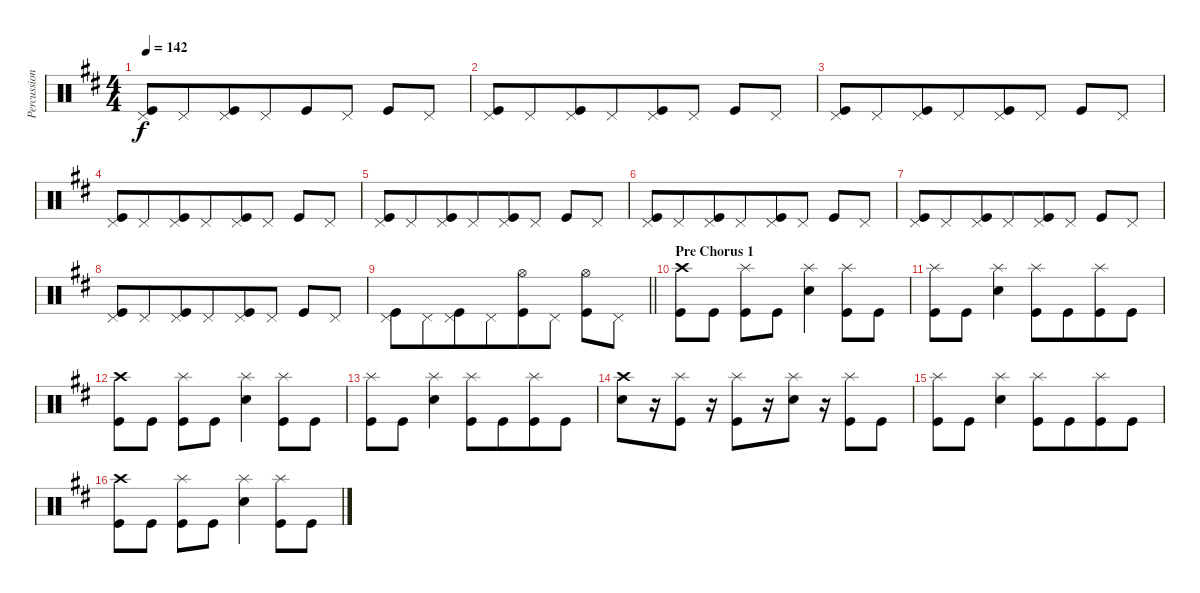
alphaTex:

\track ("Percussion" "Percussion") {instrument percussion}
\staff {score}
\articulation defaults
\ts (4 4)
\tempo 142
\clef neutral
\ks d
("Kick (hit)" "Pedal Hi-Hat (hit)").8{dy f beam merge} "Pedal Hi-Hat (hit)".8{beam merge} ("Kick (hit)" "Pedal Hi-Hat (hit)").8 "Pedal Hi-Hat (hit)".8{beam merge} "Kick (hit)".8{beam merge} "Pedal Hi-Hat (hit)".8 "Kick (hit)".8{beam merge} "Pedal Hi-Hat (hit)".8 |
("Kick (hit)" "Pedal Hi-Hat (hit)").8{beam merge} "Pedal Hi-Hat (hit)".8{beam merge} ("Kick (hit)" "Pedal Hi-Hat (hit)").8 "Pedal Hi-Hat (hit)".8{beam merge} ("Kick (hit)" "Pedal Hi-Hat (hit)").8{beam merge} "Pedal Hi-Hat (hit)".8 "Kick (hit)".8{beam merge} "Pedal Hi-Hat (hit)".8 |
("Kick (hit)" "Pedal Hi-Hat (hit)").8{beam merge} "Pedal Hi-Hat (hit)".8{beam merge} ("Kick (hit)" "Pedal Hi-Hat (hit)").8 "Pedal Hi-Hat (hit)".8{beam merge} ("Kick (hit)" "Pedal Hi-Hat (hit)").8{beam merge} "Pedal Hi-Hat (hit)".8 "Kick (hit)".8{beam merge} "Pedal Hi-Hat (hit)".8 |
("Kick (hit)" "Pedal Hi-Hat (hit)").8{beam merge} "Pedal Hi-Hat (hit)".8{beam merge} ("Kick (hit)" "Pedal Hi-Hat (hit)").8 "Pedal Hi-Hat (hit)".8{beam merge} ("Kick (hit)" "Pedal Hi-Hat (hit)").8{beam merge} "Pedal Hi-Hat (hit)".8 "Kick (hit)".8{beam merge} "Pedal Hi-Hat (hit)".8 |
("Kick (hit)" "Pedal Hi-Hat (hit)").8{beam merge} "Pedal Hi-Hat (hit)".8{beam merge} ("Kick (hit)" "Pedal Hi-Hat (hit)").8 "Pedal Hi-Hat (hit)".8{beam merge} ("Kick (hit)" "Pedal Hi-Hat (hit)").8{beam merge} "Pedal Hi-Hat (hit)".8 "Kick (hit)".8{beam merge} "Pedal Hi-Hat (hit)".8 |
("Kick (hit)" "Pedal Hi-Hat (hit)").8{beam merge} "Pedal Hi-Hat (hit)".8{beam merge} ("Kick (hit)" "Pedal Hi-Hat (hit)").8 "Pedal Hi-Hat (hit)".8{beam merge} ("Kick (hit)" "Pedal Hi-Hat (hit)").8{beam merge} "Pedal Hi-Hat (hit)".8 "Kick (hit)".8{beam merge} "Pedal Hi-Hat (hit)".8 |
("Kick (hit)" "Pedal Hi-Hat (hit)").8{beam merge} "Pedal Hi-Hat (hit)".8{beam merge} ("Kick (hit)" "Pedal Hi-Hat (hit)").8 "Pedal Hi-Hat (hit)".8{beam merge} ("Kick (hit)" "Pedal Hi-Hat (hit)").8{beam merge} "Pedal Hi-Hat (hit)".8 "Kick (hit)".8{beam merge} "Pedal Hi-Hat (hit)".8 |
("Kick (hit)" "Pedal Hi-Hat (hit)").8{beam merge} "Pedal Hi-Hat (hit)".8{beam merge} ("Kick (hit)" "Pedal Hi-Hat (hit)").8 "Pedal Hi-Hat (hit)".8{beam merge} ("Kick (hit)" "Pedal Hi-Hat (hit)").8{beam merge} "Pedal Hi-Hat (hit)".8 "Kick (hit)".8{beam merge} "Pedal Hi-Hat (hit)".8 |
\barLineRight lightlight
("Kick (hit)" "Pedal Hi-Hat (hit)").8{beam merge} "Pedal Hi-Hat (hit)".8{beam merge} ("Kick (hit)" "Pedal Hi-Hat (hit)").8 "Pedal Hi-Hat (hit)".8{beam merge} ("Kick (hit)" "Hi-Hat (open)").8{beam merge} "Pedal Hi-Hat (hit)".8 ("Kick (hit)" "Hi-Hat (open)").8{beam merge} "Pedal Hi-Hat (hit)".8 |
\section ("" "Pre Chorus 1")
("Kick (hit)" "Crash high (hit)").8 "Kick (hit)".8 ("Kick (hit)" "Splash (hit)").8 "Kick (hit)".8{beam merge} ("Snare (hit) 2" "Splash (hit)").4 ("Kick (hit)" "Splash (hit)").8 "Kick (hit)".8 |
("Kick (hit)" "Splash (hit)").8 "Kick (hit)".8 ("Snare (hit) 2" "Splash (hit)").4 ("Kick (hit)" "Splash (hit)").8 "Kick (hit)".8{beam merge} ("Kick (hit)" "Splash (hit)").8 "Kick (hit)".8 |
("Kick (hit)" "Crash high (hit)").8 "Kick (hit)".8 ("Kick (hit)" "Splash (hit)").8 "Kick (hit)".8{beam merge} ("Snare (hit) 2" "Splash (hit)").4 ("Kick (hit)" "Splash (hit)").8 "Kick (hit)".8 |
("Kick (hit)" "Splash (hit)").8 "Kick (hit)".8 ("Snare (hit) 2" "Splash (hit)").4 ("Kick (hit)" "Splash (hit)").8 "Kick (hit)".8{beam merge} ("Kick (hit)" "Splash (hit)").8 "Kick (hit)".8 |
("Snare (hit) 2" "Crash high (hit)").8{beam merge} r.16 ("Kick (hit)" "Splash (hit)").8 r.16{beam merge} ("Kick (hit)" "Splash (hit)").8{beam merge} r.16 ("Snare (hit) 2" "Splash (hit)").8 r.16 ("Kick (hit)" "Splash (hit)").8 "Kick (hit)".8 |
("Kick (hit)" "Splash (hit)").8 "Kick (hit)".8 ("Snare (hit) 2" "Splash (hit)").4 ("Kick (hit)" "Splash (hit)").8 "Kick (hit)".8{beam merge} ("Kick (hit)" "Splash (hit)").8 "Kick (hit)".8 |
("Kick (hit)" "Crash high (hit)").8 "Kick (hit)".8 ("Kick (hit)" "Splash (hit)").8 "Kick (hit)".8{beam merge} ("Snare (hit) 2" "Splash (hit)").4 ("Kick (hit)" "Splash (hit)").8 "Kick (hit)".8
